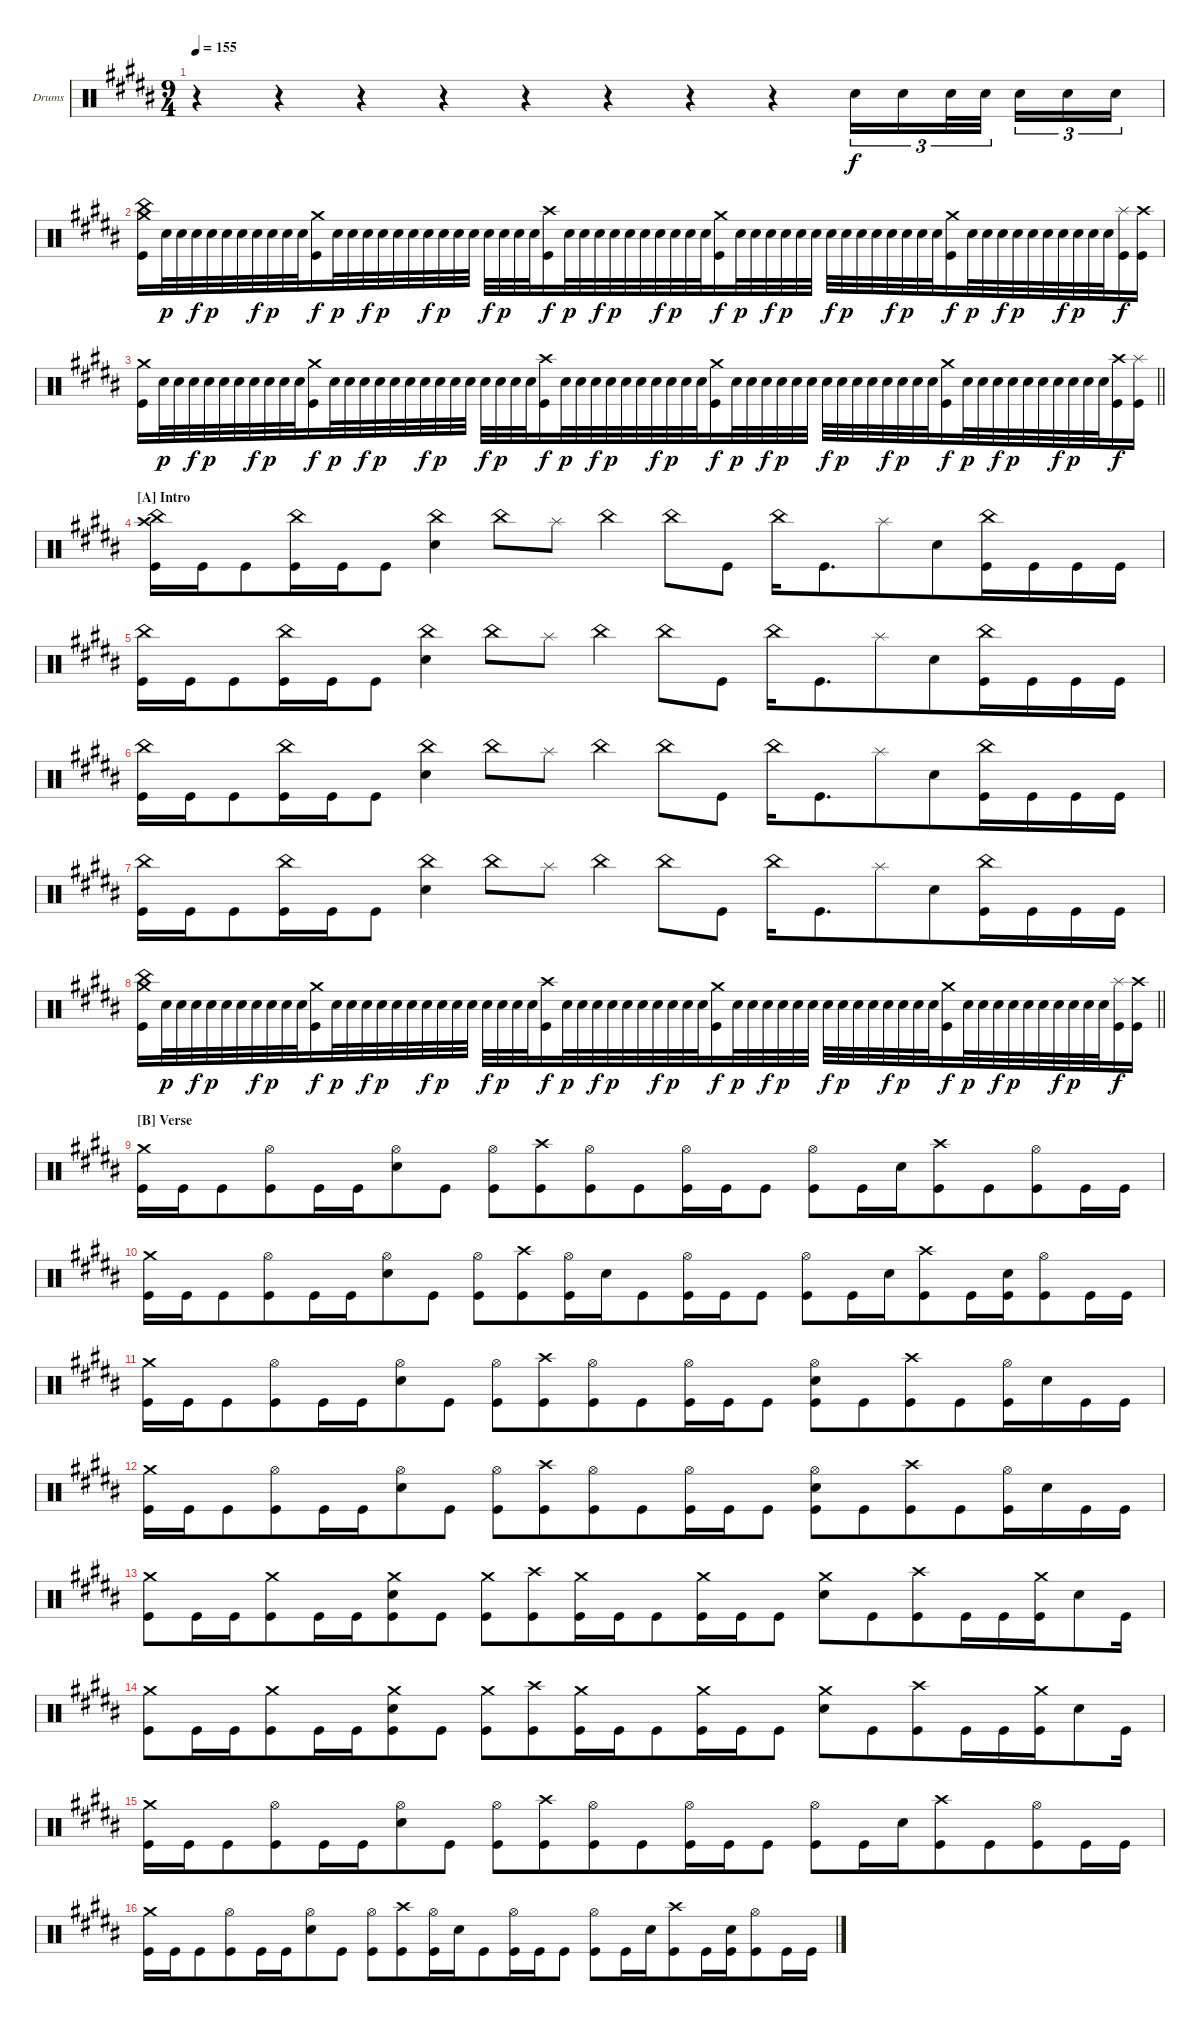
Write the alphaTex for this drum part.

\bracketExtendMode groupsimilarinstruments
\firstSystemTrackNameOrientation horizontal
\otherSystemsTrackNameOrientation horizontal
\track ("Navene Koperweis" "Drums") {instrument percussion}
\staff {score}
\articulation defaults
\ts (9 4)
\tempo 155
\clef neutral
\ks b
r.4{dy f} r.4 r.4 r.4 r.4 r.4 r.4 r.4 "Snare (hit) 2".16{tu (3 2)} "Snare (hit) 2".16{tu (3 2)} "Snare (hit) 2".32{tu (3 2)} "Snare (hit) 2".32{tu (3 2)} "Snare (hit) 2".16{tu (3 2)} "Snare (hit) 2".16{tu (3 2)} "Snare (hit) 2".16{tu (3 2)} |
\beaming (8 6 6 6)
("Crash medium (hit)" "China (hit)" "Kick (hit)").16 "Snare (hit) 2".32{dy p} "Snare (hit) 2".32 "Snare (hit) 2".32{dy f} "Snare (hit) 2".32{dy p} "Snare (hit) 2".32 "Snare (hit) 2".32 "Snare (hit) 2".32{dy f} "Snare (hit) 2".32{dy p} "Snare (hit) 2".32 "Snare (hit) 2".32 ("Crash medium (hit)" "Kick (hit)").16{dy f} "Snare (hit) 2".32{dy p} "Snare (hit) 2".32 "Snare (hit) 2".32{dy f} "Snare (hit) 2".32{dy p} "Snare (hit) 2".32 "Snare (hit) 2".32 "Snare (hit) 2".32{dy f} "Snare (hit) 2".32{dy p} "Snare (hit) 2".32 "Snare (hit) 2".32 "Snare (hit) 2".32{dy f} "Snare (hit) 2".32{dy p} "Snare (hit) 2".32 "Snare (hit) 2".32 ("Crash high (hit)" "Kick (hit)").16{dy f} "Snare (hit) 2".32{dy p} "Snare (hit) 2".32 "Snare (hit) 2".32{dy f} "Snare (hit) 2".32{dy p} "Snare (hit) 2".32 "Snare (hit) 2".32 "Snare (hit) 2".32{dy f} "Snare (hit) 2".32{dy p} "Snare (hit) 2".32 "Snare (hit) 2".32 ("Crash medium (hit)" "Kick (hit)").16{dy f} "Snare (hit) 2".32{dy p} "Snare (hit) 2".32 "Snare (hit) 2".32{dy f} "Snare (hit) 2".32{dy p} "Snare (hit) 2".32 "Snare (hit) 2".32 "Snare (hit) 2".32{dy f} "Snare (hit) 2".32{dy p} "Snare (hit) 2".32 "Snare (hit) 2".32 "Snare (hit) 2".32{dy f} "Snare (hit) 2".32{dy p} "Snare (hit) 2".32 "Snare (hit) 2".32 ("Crash medium (hit)" "Kick (hit)").16{dy f} "Snare (hit) 2".32{dy p} "Snare (hit) 2".32 "Snare (hit) 2".32{dy f} "Snare (hit) 2".32{dy p} "Snare (hit) 2".32 "Snare (hit) 2".32 "Snare (hit) 2".32{dy f} "Snare (hit) 2".32{dy p} "Snare (hit) 2".32 "Snare (hit) 2".32 ("Splash (hit)" "Kick (hit)").16{dy f} ("Crash high (hit)" "Kick (hit)").16 |
\barLineRight lightlight
("Crash medium (hit)" "Kick (hit)").16 "Snare (hit) 2".32{dy p} "Snare (hit) 2".32 "Snare (hit) 2".32{dy f} "Snare (hit) 2".32{dy p} "Snare (hit) 2".32 "Snare (hit) 2".32 "Snare (hit) 2".32{dy f} "Snare (hit) 2".32{dy p} "Snare (hit) 2".32 "Snare (hit) 2".32 ("Crash medium (hit)" "Kick (hit)").16{dy f} "Snare (hit) 2".32{dy p} "Snare (hit) 2".32 "Snare (hit) 2".32{dy f} "Snare (hit) 2".32{dy p} "Snare (hit) 2".32 "Snare (hit) 2".32 "Snare (hit) 2".32{dy f} "Snare (hit) 2".32{dy p} "Snare (hit) 2".32 "Snare (hit) 2".32 "Snare (hit) 2".32{dy f} "Snare (hit) 2".32{dy p} "Snare (hit) 2".32 "Snare (hit) 2".32 ("Crash high (hit)" "Kick (hit)").16{dy f} "Snare (hit) 2".32{dy p} "Snare (hit) 2".32 "Snare (hit) 2".32{dy f} "Snare (hit) 2".32{dy p} "Snare (hit) 2".32 "Snare (hit) 2".32 "Snare (hit) 2".32{dy f} "Snare (hit) 2".32{dy p} "Snare (hit) 2".32 "Snare (hit) 2".32 ("Crash medium (hit)" "Kick (hit)").16{dy f} "Snare (hit) 2".32{dy p} "Snare (hit) 2".32 "Snare (hit) 2".32{dy f} "Snare (hit) 2".32{dy p} "Snare (hit) 2".32 "Snare (hit) 2".32 "Snare (hit) 2".32{dy f} "Snare (hit) 2".32{dy p} "Snare (hit) 2".32 "Snare (hit) 2".32 "Snare (hit) 2".32{dy f} "Snare (hit) 2".32{dy p} "Snare (hit) 2".32 "Snare (hit) 2".32 ("Crash medium (hit)" "Kick (hit)").16{dy f} "Snare (hit) 2".32{dy p} "Snare (hit) 2".32 "Snare (hit) 2".32{dy f} "Snare (hit) 2".32{dy p} "Snare (hit) 2".32 "Snare (hit) 2".32 "Snare (hit) 2".32{dy f} "Snare (hit) 2".32{dy p} "Snare (hit) 2".32 "Snare (hit) 2".32 ("Crash high (hit)" "Kick (hit)").16{dy f} ("Splash (hit)" "Kick (hit)").16 |
\section ("A" "Intro")
("China (hit)" "Crash high (hit)" "Kick (hit)").16 "Kick (hit)".16 "Kick (hit)".8 ("China (hit)" "Kick (hit)").16 "Kick (hit)".16 "Kick (hit)".8 ("China (hit)" "Snare (hit) 2").4 "China (hit)".8 "Splash (hit)".8 "China (hit)".4 "China (hit)".8 "Kick (hit)".8 "China (hit)".16 "Kick (hit)".8{d} "Splash (hit)".8 "Snare (hit) 2".8 ("China (hit)" "Kick (hit)").16 "Kick (hit)".16 "Kick (hit)".16 "Kick (hit)".16 |
("China (hit)" "Kick (hit)").16 "Kick (hit)".16 "Kick (hit)".8 ("China (hit)" "Kick (hit)").16 "Kick (hit)".16 "Kick (hit)".8 ("China (hit)" "Snare (hit) 2").4 "China (hit)".8 "Splash (hit)".8 "China (hit)".4 "China (hit)".8 "Kick (hit)".8 "China (hit)".16 "Kick (hit)".8{d} "Splash (hit)".8 "Snare (hit) 2".8 ("China (hit)" "Kick (hit)").16 "Kick (hit)".16 "Kick (hit)".16 "Kick (hit)".16 |
("China (hit)" "Kick (hit)").16 "Kick (hit)".16 "Kick (hit)".8 ("China (hit)" "Kick (hit)").16 "Kick (hit)".16 "Kick (hit)".8 ("China (hit)" "Snare (hit) 2").4 "China (hit)".8 "Splash (hit)".8 "China (hit)".4 "China (hit)".8 "Kick (hit)".8 "China (hit)".16 "Kick (hit)".8{d} "Splash (hit)".8 "Snare (hit) 2".8 ("China (hit)" "Kick (hit)").16 "Kick (hit)".16 "Kick (hit)".16 "Kick (hit)".16 |
("China (hit)" "Kick (hit)").16 "Kick (hit)".16 "Kick (hit)".8 ("China (hit)" "Kick (hit)").16 "Kick (hit)".16 "Kick (hit)".8 ("China (hit)" "Snare (hit) 2").4 "China (hit)".8 "Splash (hit)".8 "China (hit)".4 "China (hit)".8 "Kick (hit)".8 "China (hit)".16 "Kick (hit)".8{d} "Splash (hit)".8 "Snare (hit) 2".8 ("China (hit)" "Kick (hit)").16 "Kick (hit)".16 "Kick (hit)".16 "Kick (hit)".16 |
\barLineRight lightlight
("Crash medium (hit)" "China (hit)" "Kick (hit)").16 "Snare (hit) 2".32{dy p} "Snare (hit) 2".32 "Snare (hit) 2".32{dy f} "Snare (hit) 2".32{dy p} "Snare (hit) 2".32 "Snare (hit) 2".32 "Snare (hit) 2".32{dy f} "Snare (hit) 2".32{dy p} "Snare (hit) 2".32 "Snare (hit) 2".32 ("Crash medium (hit)" "Kick (hit)").16{dy f} "Snare (hit) 2".32{dy p} "Snare (hit) 2".32 "Snare (hit) 2".32{dy f} "Snare (hit) 2".32{dy p} "Snare (hit) 2".32 "Snare (hit) 2".32 "Snare (hit) 2".32{dy f} "Snare (hit) 2".32{dy p} "Snare (hit) 2".32 "Snare (hit) 2".32 "Snare (hit) 2".32{dy f} "Snare (hit) 2".32{dy p} "Snare (hit) 2".32 "Snare (hit) 2".32 ("Crash high (hit)" "Kick (hit)").16{dy f} "Snare (hit) 2".32{dy p} "Snare (hit) 2".32 "Snare (hit) 2".32{dy f} "Snare (hit) 2".32{dy p} "Snare (hit) 2".32 "Snare (hit) 2".32 "Snare (hit) 2".32{dy f} "Snare (hit) 2".32{dy p} "Snare (hit) 2".32 "Snare (hit) 2".32 ("Crash medium (hit)" "Kick (hit)").16{dy f} "Snare (hit) 2".32{dy p} "Snare (hit) 2".32 "Snare (hit) 2".32{dy f} "Snare (hit) 2".32{dy p} "Snare (hit) 2".32 "Snare (hit) 2".32 "Snare (hit) 2".32{dy f} "Snare (hit) 2".32{dy p} "Snare (hit) 2".32 "Snare (hit) 2".32 "Snare (hit) 2".32{dy f} "Snare (hit) 2".32{dy p} "Snare (hit) 2".32 "Snare (hit) 2".32 ("Crash medium (hit)" "Kick (hit)").16{dy f} "Snare (hit) 2".32{dy p} "Snare (hit) 2".32 "Snare (hit) 2".32{dy f} "Snare (hit) 2".32{dy p} "Snare (hit) 2".32 "Snare (hit) 2".32 "Snare (hit) 2".32{dy f} "Snare (hit) 2".32{dy p} "Snare (hit) 2".32 "Snare (hit) 2".32 ("Splash (hit)" "Kick (hit)").16{dy f} ("Crash high (hit)" "Kick (hit)").16 |
\section ("B" "Verse")
("Crash medium (hit)" "Kick (hit)").16 "Kick (hit)".16 "Kick (hit)".8 ("Hi-Hat (open)" "Kick (hit)").8 "Kick (hit)".16 "Kick (hit)".16 ("Hi-Hat (open)" "Snare (hit) 2").8 "Kick (hit)".8 ("Hi-Hat (open)" "Kick (hit)").8 ("Crash high (hit)" "Kick (hit)").8 ("Hi-Hat (open)" "Kick (hit)").8 "Kick (hit)".8 ("Hi-Hat (open)" "Kick (hit)").16 "Kick (hit)".16 "Kick (hit)".8 ("Hi-Hat (open)" "Kick (hit)").8 "Kick (hit)".16 "Snare (hit) 2".16 ("Crash high (hit)" "Kick (hit)").8 "Kick (hit)".8 ("Hi-Hat (open)" "Kick (hit)").8 "Kick (hit)".16 "Kick (hit)".16 |
("Crash medium (hit)" "Kick (hit)").16 "Kick (hit)".16 "Kick (hit)".8 ("Hi-Hat (open)" "Kick (hit)").8 "Kick (hit)".16 "Kick (hit)".16 ("Hi-Hat (open)" "Snare (hit) 2").8 "Kick (hit)".8 ("Hi-Hat (open)" "Kick (hit)").8 ("Crash high (hit)" "Kick (hit)").8 ("Hi-Hat (open)" "Kick (hit)").16 "Snare (hit) 2".16 "Kick (hit)".8 ("Hi-Hat (open)" "Kick (hit)").16 "Kick (hit)".16 "Kick (hit)".8 ("Hi-Hat (open)" "Kick (hit)").8 "Kick (hit)".16 "Snare (hit) 2".16 ("Crash high (hit)" "Kick (hit)").8 "Kick (hit)".16 ("Snare (hit) 2" "Kick (hit)").16 ("Hi-Hat (open)" "Kick (hit)").8 "Kick (hit)".16 "Kick (hit)".16 |
("Crash medium (hit)" "Kick (hit)").16 "Kick (hit)".16 "Kick (hit)".8 ("Hi-Hat (open)" "Kick (hit)").8 "Kick (hit)".16 "Kick (hit)".16 ("Hi-Hat (open)" "Snare (hit) 2").8 "Kick (hit)".8 ("Hi-Hat (open)" "Kick (hit)").8 ("Crash high (hit)" "Kick (hit)").8 ("Hi-Hat (open)" "Kick (hit)").8 "Kick (hit)".8 ("Hi-Hat (open)" "Kick (hit)").16 "Kick (hit)".16 "Kick (hit)".8 ("Hi-Hat (open)" "Snare (hit) 2" "Kick (hit)").8 "Kick (hit)".8 ("Crash high (hit)" "Kick (hit)").8 "Kick (hit)".8 ("Hi-Hat (open)" "Kick (hit)").16 "Snare (hit) 2".16 "Kick (hit)".16 "Kick (hit)".16 |
("Crash medium (hit)" "Kick (hit)").16 "Kick (hit)".16 "Kick (hit)".8 ("Hi-Hat (open)" "Kick (hit)").8 "Kick (hit)".16 "Kick (hit)".16 ("Hi-Hat (open)" "Snare (hit) 2").8 "Kick (hit)".8 ("Hi-Hat (open)" "Kick (hit)").8 ("Crash high (hit)" "Kick (hit)").8 ("Hi-Hat (open)" "Kick (hit)").8 "Kick (hit)".8 ("Hi-Hat (open)" "Kick (hit)").16 "Kick (hit)".16 "Kick (hit)".8 ("Hi-Hat (open)" "Snare (hit) 2" "Kick (hit)").8 "Kick (hit)".8 ("Crash high (hit)" "Kick (hit)").8 "Kick (hit)".8 ("Hi-Hat (open)" "Kick (hit)").16 "Snare (hit) 2".16 "Kick (hit)".16 "Kick (hit)".16 |
("Crash medium (hit)" "Kick (hit)").8 "Kick (hit)".16 "Kick (hit)".16 ("Crash medium (hit)" "Kick (hit)").8 "Kick (hit)".16 "Kick (hit)".16 ("Crash medium (hit)" "Snare (hit) 2" "Kick (hit)").8 "Kick (hit)".8 ("Crash medium (hit)" "Kick (hit)").8 ("Crash high (hit)" "Kick (hit)").8 ("Crash medium (hit)" "Kick (hit)").16 "Kick (hit)".16 "Kick (hit)".8 ("Crash medium (hit)" "Kick (hit)").16 "Kick (hit)".16 "Kick (hit)".8 ("Crash medium (hit)" "Snare (hit) 2").8 "Kick (hit)".8 ("Crash high (hit)" "Kick (hit)").8 "Kick (hit)".16 "Kick (hit)".16 ("Crash medium (hit)" "Kick (hit)").16 "Snare (hit) 2".8 "Kick (hit)".16 |
("Crash medium (hit)" "Kick (hit)").8 "Kick (hit)".16 "Kick (hit)".16 ("Crash medium (hit)" "Kick (hit)").8 "Kick (hit)".16 "Kick (hit)".16 ("Crash medium (hit)" "Snare (hit) 2" "Kick (hit)").8 "Kick (hit)".8 ("Crash medium (hit)" "Kick (hit)").8 ("Crash high (hit)" "Kick (hit)").8 ("Crash medium (hit)" "Kick (hit)").16 "Kick (hit)".16 "Kick (hit)".8 ("Crash medium (hit)" "Kick (hit)").16 "Kick (hit)".16 "Kick (hit)".8 ("Crash medium (hit)" "Snare (hit) 2").8 "Kick (hit)".8 ("Crash high (hit)" "Kick (hit)").8 "Kick (hit)".16 "Kick (hit)".16 ("Crash medium (hit)" "Kick (hit)").16 "Snare (hit) 2".8 "Kick (hit)".16 |
("Crash medium (hit)" "Kick (hit)").16 "Kick (hit)".16 "Kick (hit)".8 ("Hi-Hat (open)" "Kick (hit)").8 "Kick (hit)".16 "Kick (hit)".16 ("Hi-Hat (open)" "Snare (hit) 2").8 "Kick (hit)".8 ("Hi-Hat (open)" "Kick (hit)").8 ("Crash high (hit)" "Kick (hit)").8 ("Hi-Hat (open)" "Kick (hit)").8 "Kick (hit)".8 ("Hi-Hat (open)" "Kick (hit)").16 "Kick (hit)".16 "Kick (hit)".8 ("Hi-Hat (open)" "Kick (hit)").8 "Kick (hit)".16 "Snare (hit) 2".16 ("Crash high (hit)" "Kick (hit)").8 "Kick (hit)".8 ("Hi-Hat (open)" "Kick (hit)").8 "Kick (hit)".16 "Kick (hit)".16 |
("Crash medium (hit)" "Kick (hit)").16 "Kick (hit)".16 "Kick (hit)".8 ("Hi-Hat (open)" "Kick (hit)").8 "Kick (hit)".16 "Kick (hit)".16 ("Hi-Hat (open)" "Snare (hit) 2").8 "Kick (hit)".8 ("Hi-Hat (open)" "Kick (hit)").8 ("Crash high (hit)" "Kick (hit)").8 ("Hi-Hat (open)" "Kick (hit)").16 "Snare (hit) 2".16 "Kick (hit)".8 ("Hi-Hat (open)" "Kick (hit)").16 "Kick (hit)".16 "Kick (hit)".8 ("Hi-Hat (open)" "Kick (hit)").8 "Kick (hit)".16 "Snare (hit) 2".16 ("Crash high (hit)" "Kick (hit)").8 "Kick (hit)".16 ("Snare (hit) 2" "Kick (hit)").16 ("Hi-Hat (open)" "Kick (hit)").8 "Kick (hit)".16 "Kick (hit)".16
